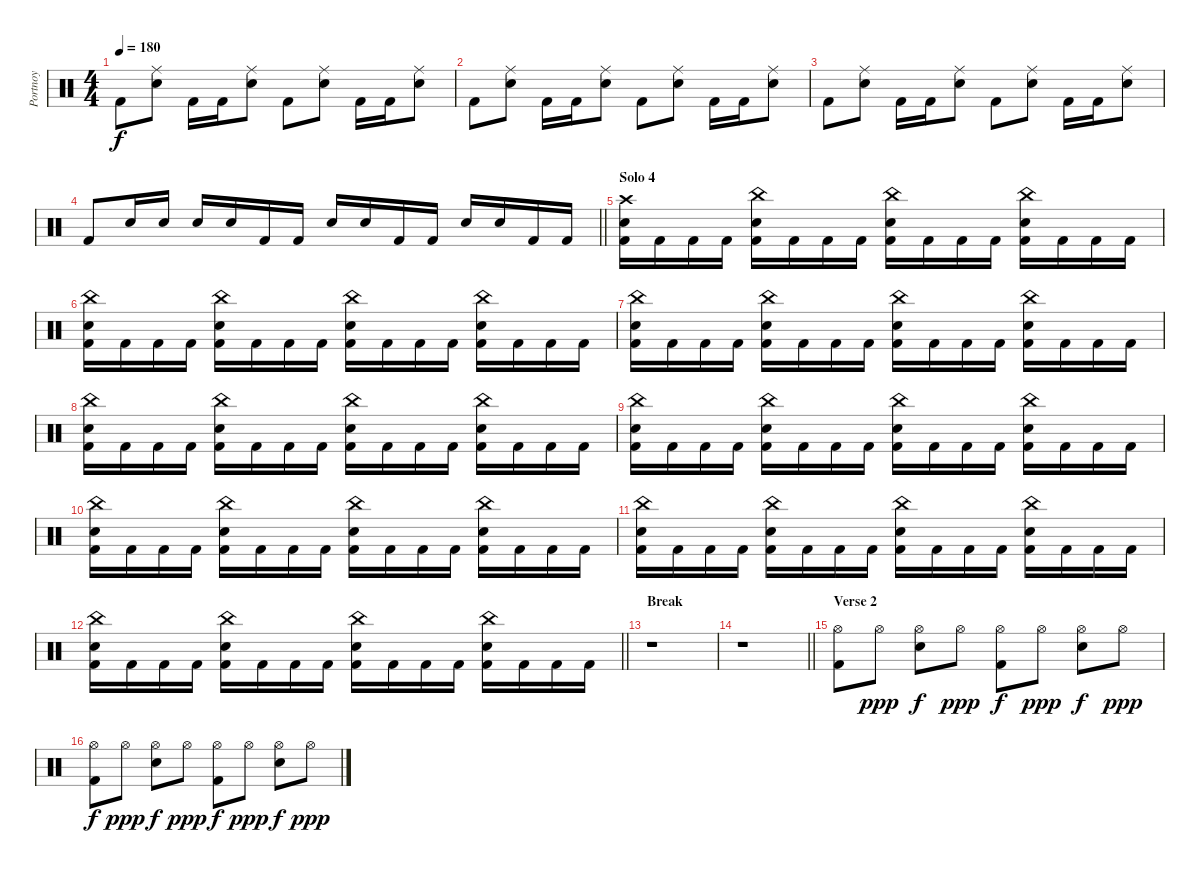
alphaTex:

\track ("Portnoy" "Portnoy") {instrument percussion}
\staff {score}
\articulation defaults
\ts (4 4)
\tempo 180
\clef neutral
\ks c "Kick (hit) 2".8{dy f}
("Ride (middle)" "Electric Snare (hit)").8 "Kick (hit) 2".16 "Kick (hit) 2".16 ("Ride (middle)" "Electric Snare (hit)").8 "Kick (hit) 2".8 ("Ride (middle)" "Electric Snare (hit)").8 "Kick (hit) 2".16 "Kick (hit) 2".16 ("Ride (middle)" "Electric Snare (hit)").8 |
"Kick (hit) 2".8 ("Ride (middle)" "Electric Snare (hit)").8 "Kick (hit) 2".16 "Kick (hit) 2".16 ("Ride (middle)" "Electric Snare (hit)").8 "Kick (hit) 2".8 ("Ride (middle)" "Electric Snare (hit)").8 "Kick (hit) 2".16 "Kick (hit) 2".16 ("Ride (middle)" "Electric Snare (hit)").8 |
"Kick (hit) 2".8 ("Ride (middle)" "Electric Snare (hit)").8 "Kick (hit) 2".16 "Kick (hit) 2".16 ("Ride (middle)" "Electric Snare (hit)").8 "Kick (hit) 2".8 ("Ride (middle)" "Electric Snare (hit)").8 "Kick (hit) 2".16 "Kick (hit) 2".16 ("Ride (middle)" "Electric Snare (hit)").8 |
\barLineRight lightlight "Kick (hit) 2".8 "Electric Snare (hit)".16 "Electric Snare (hit)".16 "Electric Snare (hit)".16 "Electric Snare (hit)".16 "Kick (hit) 2".16 "Kick (hit) 2".16 "Electric Snare (hit)".16 "Electric Snare (hit)".16 "Kick (hit) 2".16 "Kick (hit) 2".16 "Electric Snare (hit)".16 "Electric Snare (hit)".16 "Kick (hit) 2".16 "Kick (hit) 2".16
|
\section ("" "Solo 4")
("Crash high (hit)" "Electric Snare (hit)" "Kick (hit) 2").16 "Kick (hit) 2".16 "Kick (hit) 2".16 "Kick (hit) 2".16 ("China (hit)" "Electric Snare (hit)" "Kick (hit) 2").16 "Kick (hit) 2".16 "Kick (hit) 2".16 "Kick (hit) 2".16 ("China (hit)" "Electric Snare (hit)" "Kick (hit) 2").16 "Kick (hit) 2".16 "Kick (hit) 2".16 "Kick (hit) 2".16 ("China (hit)" "Electric Snare (hit)" "Kick (hit) 2").16 "Kick (hit) 2".16 "Kick (hit) 2".16 "Kick (hit) 2".16 |
("China (hit)" "Electric Snare (hit)" "Kick (hit) 2").16 "Kick (hit) 2".16 "Kick (hit) 2".16 "Kick (hit) 2".16 ("China (hit)" "Electric Snare (hit)" "Kick (hit) 2").16 "Kick (hit) 2".16 "Kick (hit) 2".16 "Kick (hit) 2".16 ("China (hit)" "Electric Snare (hit)" "Kick (hit) 2").16 "Kick (hit) 2".16 "Kick (hit) 2".16 "Kick (hit) 2".16 ("China (hit)" "Electric Snare (hit)" "Kick (hit) 2").16 "Kick (hit) 2".16 "Kick (hit) 2".16 "Kick (hit) 2".16 |
("China (hit)" "Electric Snare (hit)" "Kick (hit) 2").16 "Kick (hit) 2".16 "Kick (hit) 2".16 "Kick (hit) 2".16 ("China (hit)" "Electric Snare (hit)" "Kick (hit) 2").16 "Kick (hit) 2".16 "Kick (hit) 2".16 "Kick (hit) 2".16 ("China (hit)" "Electric Snare (hit)" "Kick (hit) 2").16 "Kick (hit) 2".16 "Kick (hit) 2".16 "Kick (hit) 2".16 ("China (hit)" "Electric Snare (hit)" "Kick (hit) 2").16 "Kick (hit) 2".16 "Kick (hit) 2".16 "Kick (hit) 2".16 |
("China (hit)" "Electric Snare (hit)" "Kick (hit) 2").16 "Kick (hit) 2".16 "Kick (hit) 2".16 "Kick (hit) 2".16 ("China (hit)" "Electric Snare (hit)" "Kick (hit) 2").16 "Kick (hit) 2".16 "Kick (hit) 2".16 "Kick (hit) 2".16 ("China (hit)" "Electric Snare (hit)" "Kick (hit) 2").16 "Kick (hit) 2".16 "Kick (hit) 2".16 "Kick (hit) 2".16 ("China (hit)" "Electric Snare (hit)" "Kick (hit) 2").16 "Kick (hit) 2".16 "Kick (hit) 2".16 "Kick (hit) 2".16 |
("China (hit)" "Electric Snare (hit)" "Kick (hit) 2").16 "Kick (hit) 2".16 "Kick (hit) 2".16 "Kick (hit) 2".16 ("China (hit)" "Electric Snare (hit)" "Kick (hit) 2").16 "Kick (hit) 2".16 "Kick (hit) 2".16 "Kick (hit) 2".16 ("China (hit)" "Electric Snare (hit)" "Kick (hit) 2").16 "Kick (hit) 2".16 "Kick (hit) 2".16 "Kick (hit) 2".16 ("China (hit)" "Electric Snare (hit)" "Kick (hit) 2").16 "Kick (hit) 2".16 "Kick (hit) 2".16 "Kick (hit) 2".16 |
("China (hit)" "Electric Snare (hit)" "Kick (hit) 2").16 "Kick (hit) 2".16 "Kick (hit) 2".16 "Kick (hit) 2".16 ("China (hit)" "Electric Snare (hit)" "Kick (hit) 2").16 "Kick (hit) 2".16 "Kick (hit) 2".16 "Kick (hit) 2".16 ("China (hit)" "Electric Snare (hit)" "Kick (hit) 2").16 "Kick (hit) 2".16 "Kick (hit) 2".16 "Kick (hit) 2".16 ("China (hit)" "Electric Snare (hit)" "Kick (hit) 2").16 "Kick (hit) 2".16 "Kick (hit) 2".16 "Kick (hit) 2".16 |
("China (hit)" "Electric Snare (hit)" "Kick (hit) 2").16 "Kick (hit) 2".16 "Kick (hit) 2".16 "Kick (hit) 2".16 ("China (hit)" "Electric Snare (hit)" "Kick (hit) 2").16 "Kick (hit) 2".16 "Kick (hit) 2".16 "Kick (hit) 2".16 ("China (hit)" "Electric Snare (hit)" "Kick (hit) 2").16 "Kick (hit) 2".16 "Kick (hit) 2".16 "Kick (hit) 2".16 ("China (hit)" "Electric Snare (hit)" "Kick (hit) 2").16 "Kick (hit) 2".16 "Kick (hit) 2".16 "Kick (hit) 2".16 |
\barLineRight lightlight
("China (hit)" "Electric Snare (hit)" "Kick (hit) 2").16 "Kick (hit) 2".16 "Kick (hit) 2".16 "Kick (hit) 2".16 ("China (hit)" "Electric Snare (hit)" "Kick (hit) 2").16 "Kick (hit) 2".16 "Kick (hit) 2".16 "Kick (hit) 2".16 ("China (hit)" "Electric Snare (hit)" "Kick (hit) 2").16 "Kick (hit) 2".16 "Kick (hit) 2".16 "Kick (hit) 2".16 ("China (hit)" "Electric Snare (hit)" "Kick (hit) 2").16 "Kick (hit) 2".16 "Kick (hit) 2".16 "Kick (hit) 2".16 |
\section ("" "Break")
r.1 |
\barLineRight lightlight
r.1 |
\section ("" "Verse 2")
("Hi-Hat (open)" "Kick (hit) 2").8 "Hi-Hat (open)".8{dy ppp} ("Hi-Hat (open)" "Electric Snare (hit)").8{dy f} "Hi-Hat (open)".8{dy ppp} ("Hi-Hat (open)" "Kick (hit) 2").8{dy f} "Hi-Hat (open)".8{dy ppp} ("Hi-Hat (open)" "Electric Snare (hit)").8{dy f} "Hi-Hat (open)".8{dy ppp} |
("Hi-Hat (open)" "Kick (hit) 2").8{dy f} "Hi-Hat (open)".8{dy ppp} ("Hi-Hat (open)" "Electric Snare (hit)").8{dy f} "Hi-Hat (open)".8{dy ppp} ("Hi-Hat (open)" "Kick (hit) 2").8{dy f} "Hi-Hat (open)".8{dy ppp} ("Hi-Hat (open)" "Electric Snare (hit)").8{dy f} "Hi-Hat (open)".8{dy ppp}
